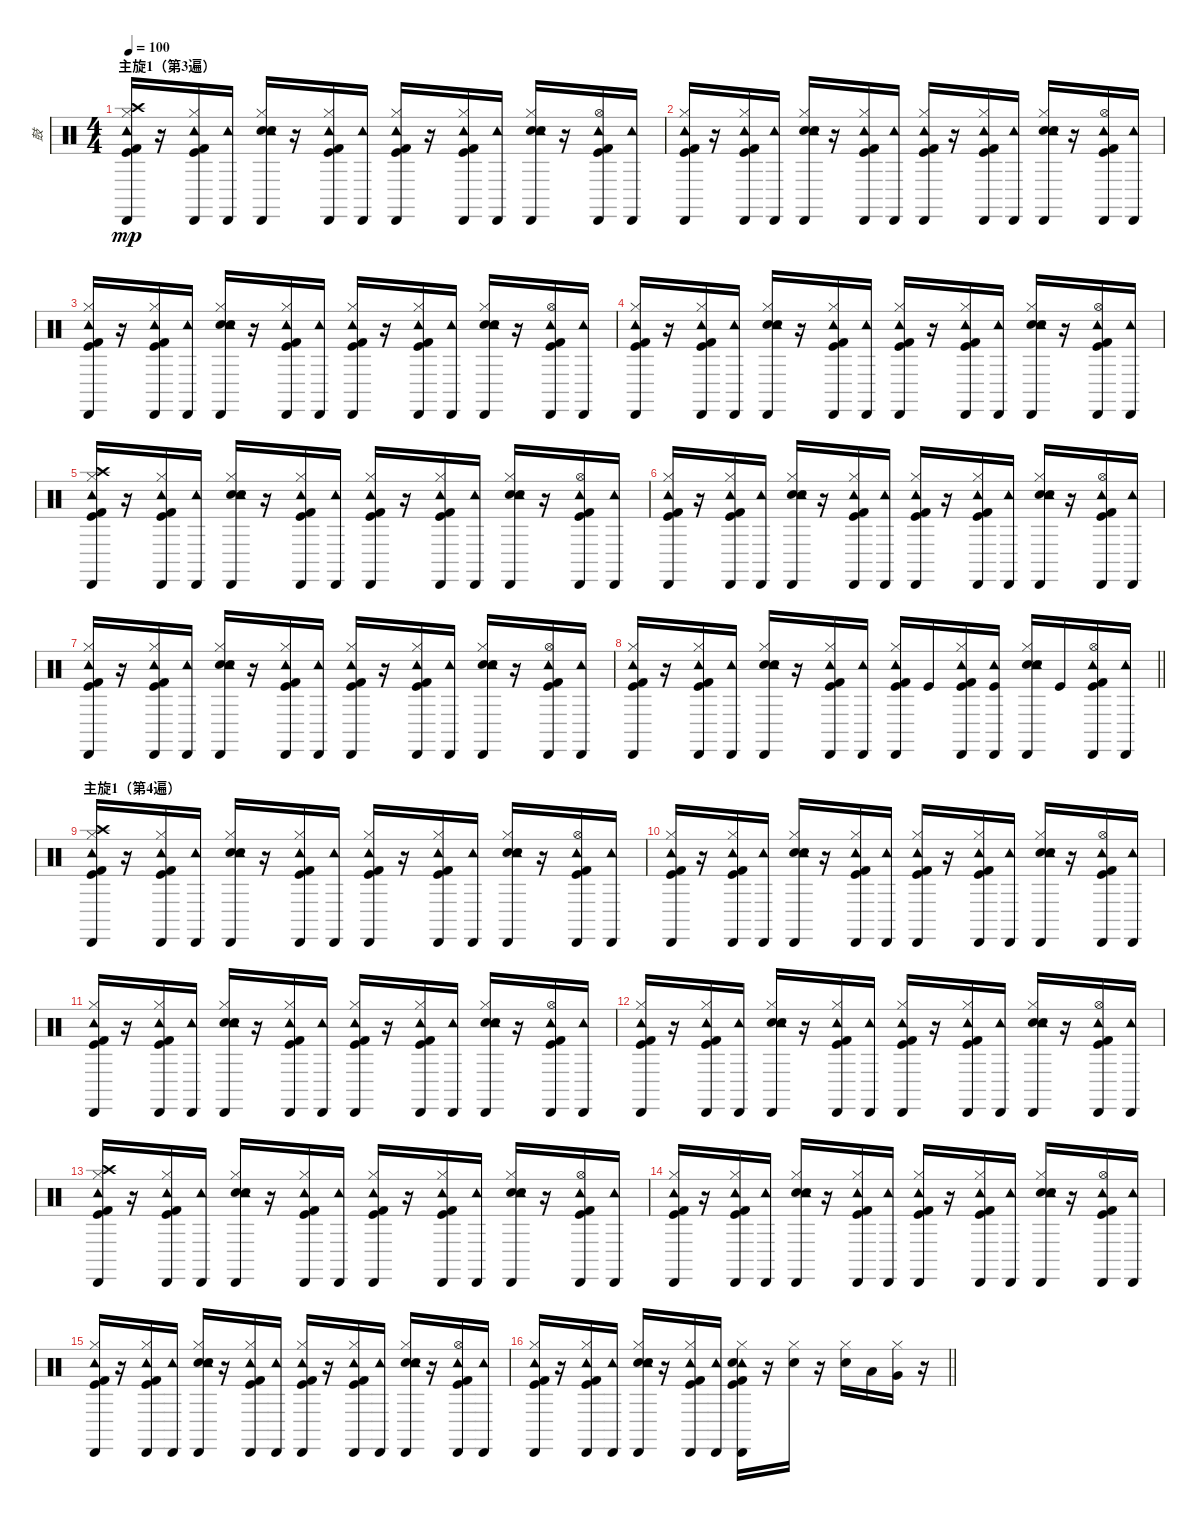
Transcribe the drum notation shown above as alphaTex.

\track ("鼓" "鼓") {instrument percussion}
\staff {score}
\articulation defaults
\ts (4 4)
\section ("" "主旋1（第3遍）")
\tempo 100
\clef neutral
\ks c
("Crash high (hit)" "Kick (hit)" "Kick (hit) 2" "Tambourine (hit)" "Cabasa (hit)" "Hi-Hat (closed)").16{dy mp} r.16 ("Kick (hit)" "Kick (hit) 2" "Tambourine (hit)" "Cabasa (hit)" "Hi-Hat (closed)").16 ("Tambourine (hit)" "Cabasa (hit)").16 ("Electric Snare (hit)" "Hand Clap (hit)" "Tambourine (hit)" "Cabasa (hit)" "Hi-Hat (closed)").16 r.16 ("Kick (hit)" "Kick (hit) 2" "Tambourine (hit)" "Cabasa (hit)" "Hi-Hat (closed)").16 ("Tambourine (hit)" "Cabasa (hit)").16 ("Kick (hit)" "Kick (hit) 2" "Tambourine (hit)" "Cabasa (hit)" "Hi-Hat (closed)").16 r.16 ("Kick (hit)" "Kick (hit) 2" "Tambourine (hit)" "Cabasa (hit)" "Hi-Hat (closed)").16 ("Tambourine (hit)" "Cabasa (hit)").16 ("Electric Snare (hit)" "Hand Clap (hit)" "Tambourine (hit)" "Cabasa (hit)" "Hi-Hat (closed)").16 r.16 ("Kick (hit)" "Kick (hit) 2" "Tambourine (hit)" "Cabasa (hit)" "Hi-Hat (open)").16 ("Tambourine (hit)" "Cabasa (hit)").16 |
("Kick (hit)" "Kick (hit) 2" "Tambourine (hit)" "Cabasa (hit)" "Hi-Hat (closed)").16 r.16 ("Kick (hit)" "Kick (hit) 2" "Tambourine (hit)" "Cabasa (hit)" "Hi-Hat (closed)").16 ("Tambourine (hit)" "Cabasa (hit)").16 ("Electric Snare (hit)" "Hand Clap (hit)" "Tambourine (hit)" "Cabasa (hit)" "Hi-Hat (closed)").16 r.16 ("Kick (hit)" "Kick (hit) 2" "Tambourine (hit)" "Cabasa (hit)" "Hi-Hat (closed)").16 ("Tambourine (hit)" "Cabasa (hit)").16 ("Kick (hit)" "Kick (hit) 2" "Tambourine (hit)" "Cabasa (hit)" "Hi-Hat (closed)").16 r.16 ("Kick (hit)" "Kick (hit) 2" "Tambourine (hit)" "Cabasa (hit)" "Hi-Hat (closed)").16 ("Tambourine (hit)" "Cabasa (hit)").16 ("Electric Snare (hit)" "Hand Clap (hit)" "Tambourine (hit)" "Cabasa (hit)" "Hi-Hat (closed)").16 r.16 ("Kick (hit)" "Kick (hit) 2" "Tambourine (hit)" "Cabasa (hit)" "Hi-Hat (open)").16 ("Tambourine (hit)" "Cabasa (hit)").16 |
("Kick (hit)" "Kick (hit) 2" "Tambourine (hit)" "Cabasa (hit)" "Hi-Hat (closed)").16 r.16 ("Kick (hit)" "Kick (hit) 2" "Tambourine (hit)" "Cabasa (hit)" "Hi-Hat (closed)").16 ("Tambourine (hit)" "Cabasa (hit)").16 ("Electric Snare (hit)" "Hand Clap (hit)" "Tambourine (hit)" "Cabasa (hit)" "Hi-Hat (closed)").16 r.16 ("Kick (hit)" "Kick (hit) 2" "Tambourine (hit)" "Cabasa (hit)" "Hi-Hat (closed)").16 ("Tambourine (hit)" "Cabasa (hit)").16 ("Kick (hit)" "Kick (hit) 2" "Tambourine (hit)" "Cabasa (hit)" "Hi-Hat (closed)").16 r.16 ("Kick (hit)" "Kick (hit) 2" "Tambourine (hit)" "Cabasa (hit)" "Hi-Hat (closed)").16 ("Tambourine (hit)" "Cabasa (hit)").16 ("Electric Snare (hit)" "Hand Clap (hit)" "Tambourine (hit)" "Cabasa (hit)" "Hi-Hat (closed)").16 r.16 ("Kick (hit)" "Kick (hit) 2" "Tambourine (hit)" "Cabasa (hit)" "Hi-Hat (open)").16 ("Tambourine (hit)" "Cabasa (hit)").16 |
("Kick (hit)" "Kick (hit) 2" "Tambourine (hit)" "Cabasa (hit)" "Hi-Hat (closed)").16 r.16 ("Kick (hit)" "Kick (hit) 2" "Tambourine (hit)" "Cabasa (hit)" "Hi-Hat (closed)").16 ("Tambourine (hit)" "Cabasa (hit)").16 ("Electric Snare (hit)" "Hand Clap (hit)" "Tambourine (hit)" "Cabasa (hit)" "Hi-Hat (closed)").16 r.16 ("Kick (hit)" "Kick (hit) 2" "Tambourine (hit)" "Cabasa (hit)" "Hi-Hat (closed)").16 ("Tambourine (hit)" "Cabasa (hit)").16 ("Kick (hit)" "Kick (hit) 2" "Tambourine (hit)" "Cabasa (hit)" "Hi-Hat (closed)").16 r.16 ("Kick (hit)" "Kick (hit) 2" "Tambourine (hit)" "Cabasa (hit)" "Hi-Hat (closed)").16 ("Tambourine (hit)" "Cabasa (hit)").16 ("Electric Snare (hit)" "Hand Clap (hit)" "Tambourine (hit)" "Cabasa (hit)" "Hi-Hat (closed)").16 r.16 ("Kick (hit)" "Kick (hit) 2" "Tambourine (hit)" "Cabasa (hit)" "Hi-Hat (open)").16 ("Tambourine (hit)" "Cabasa (hit)").16 |
("Crash high (hit)" "Kick (hit)" "Kick (hit) 2" "Tambourine (hit)" "Cabasa (hit)" "Hi-Hat (closed)").16 r.16 ("Kick (hit)" "Kick (hit) 2" "Tambourine (hit)" "Cabasa (hit)" "Hi-Hat (closed)").16 ("Tambourine (hit)" "Cabasa (hit)").16 ("Electric Snare (hit)" "Hand Clap (hit)" "Tambourine (hit)" "Cabasa (hit)" "Hi-Hat (closed)").16 r.16 ("Kick (hit)" "Kick (hit) 2" "Tambourine (hit)" "Cabasa (hit)" "Hi-Hat (closed)").16 ("Tambourine (hit)" "Cabasa (hit)").16 ("Kick (hit)" "Kick (hit) 2" "Tambourine (hit)" "Cabasa (hit)" "Hi-Hat (closed)").16 r.16 ("Kick (hit)" "Kick (hit) 2" "Tambourine (hit)" "Cabasa (hit)" "Hi-Hat (closed)").16 ("Tambourine (hit)" "Cabasa (hit)").16 ("Electric Snare (hit)" "Hand Clap (hit)" "Tambourine (hit)" "Cabasa (hit)" "Hi-Hat (closed)").16 r.16 ("Kick (hit)" "Kick (hit) 2" "Tambourine (hit)" "Cabasa (hit)" "Hi-Hat (open)").16 ("Tambourine (hit)" "Cabasa (hit)").16 |
("Kick (hit)" "Kick (hit) 2" "Tambourine (hit)" "Cabasa (hit)" "Hi-Hat (closed)").16 r.16 ("Kick (hit)" "Kick (hit) 2" "Tambourine (hit)" "Cabasa (hit)" "Hi-Hat (closed)").16 ("Tambourine (hit)" "Cabasa (hit)").16 ("Electric Snare (hit)" "Hand Clap (hit)" "Tambourine (hit)" "Cabasa (hit)" "Hi-Hat (closed)").16 r.16 ("Kick (hit)" "Kick (hit) 2" "Tambourine (hit)" "Cabasa (hit)" "Hi-Hat (closed)").16 ("Tambourine (hit)" "Cabasa (hit)").16 ("Kick (hit)" "Kick (hit) 2" "Tambourine (hit)" "Cabasa (hit)" "Hi-Hat (closed)").16 r.16 ("Kick (hit)" "Kick (hit) 2" "Tambourine (hit)" "Cabasa (hit)" "Hi-Hat (closed)").16 ("Tambourine (hit)" "Cabasa (hit)").16 ("Electric Snare (hit)" "Hand Clap (hit)" "Tambourine (hit)" "Cabasa (hit)" "Hi-Hat (closed)").16 r.16 ("Kick (hit)" "Kick (hit) 2" "Tambourine (hit)" "Cabasa (hit)" "Hi-Hat (open)").16 ("Tambourine (hit)" "Cabasa (hit)").16 |
("Kick (hit)" "Kick (hit) 2" "Tambourine (hit)" "Cabasa (hit)" "Hi-Hat (closed)").16 r.16 ("Kick (hit)" "Kick (hit) 2" "Tambourine (hit)" "Cabasa (hit)" "Hi-Hat (closed)").16 ("Tambourine (hit)" "Cabasa (hit)").16 ("Electric Snare (hit)" "Hand Clap (hit)" "Tambourine (hit)" "Cabasa (hit)" "Hi-Hat (closed)").16 r.16 ("Kick (hit)" "Kick (hit) 2" "Tambourine (hit)" "Cabasa (hit)" "Hi-Hat (closed)").16 ("Tambourine (hit)" "Cabasa (hit)").16 ("Kick (hit)" "Kick (hit) 2" "Tambourine (hit)" "Cabasa (hit)" "Hi-Hat (closed)").16 r.16 ("Kick (hit)" "Kick (hit) 2" "Tambourine (hit)" "Cabasa (hit)" "Hi-Hat (closed)").16 ("Tambourine (hit)" "Cabasa (hit)").16 ("Electric Snare (hit)" "Hand Clap (hit)" "Tambourine (hit)" "Cabasa (hit)" "Hi-Hat (closed)").16 r.16 ("Kick (hit)" "Kick (hit) 2" "Tambourine (hit)" "Cabasa (hit)" "Hi-Hat (open)").16 ("Tambourine (hit)" "Cabasa (hit)").16 |
\barLineRight lightlight
("Kick (hit)" "Kick (hit) 2" "Tambourine (hit)" "Cabasa (hit)" "Hi-Hat (closed)").16 r.16 ("Kick (hit)" "Kick (hit) 2" "Tambourine (hit)" "Cabasa (hit)" "Hi-Hat (closed)").16 ("Tambourine (hit)" "Cabasa (hit)").16 ("Electric Snare (hit)" "Hand Clap (hit)" "Tambourine (hit)" "Cabasa (hit)" "Hi-Hat (closed)").16 r.16 ("Kick (hit)" "Kick (hit) 2" "Tambourine (hit)" "Cabasa (hit)" "Hi-Hat (closed)").16 ("Tambourine (hit)" "Cabasa (hit)").16 ("Kick (hit)" "Kick (hit) 2" "Tambourine (hit)" "Cabasa (hit)" "Hi-Hat (closed)").16 "Kick (hit)".16 ("Kick (hit)" "Kick (hit) 2" "Tambourine (hit)" "Cabasa (hit)" "Hi-Hat (closed)").16 ("Tambourine (hit)" "Cabasa (hit)" "Kick (hit)").16 ("Electric Snare (hit)" "Hand Clap (hit)" "Tambourine (hit)" "Cabasa (hit)" "Hi-Hat (closed)" "Snare (side stick) 3").16 "Kick (hit)".16 ("Kick (hit)" "Kick (hit) 2" "Tambourine (hit)" "Cabasa (hit)" "Hi-Hat (open)").16 ("Tambourine (hit)" "Cabasa (hit)").16 |
\section ("" "主旋1（第4遍）")
("Crash high (hit)" "Kick (hit)" "Kick (hit) 2" "Tambourine (hit)" "Cabasa (hit)" "Hi-Hat (closed)").16 r.16 ("Kick (hit)" "Kick (hit) 2" "Tambourine (hit)" "Cabasa (hit)" "Hi-Hat (closed)").16 ("Tambourine (hit)" "Cabasa (hit)").16 ("Electric Snare (hit)" "Hand Clap (hit)" "Tambourine (hit)" "Cabasa (hit)" "Hi-Hat (closed)").16 r.16 ("Kick (hit)" "Kick (hit) 2" "Tambourine (hit)" "Cabasa (hit)" "Hi-Hat (closed)").16 ("Tambourine (hit)" "Cabasa (hit)").16 ("Kick (hit)" "Kick (hit) 2" "Tambourine (hit)" "Cabasa (hit)" "Hi-Hat (closed)").16 r.16 ("Kick (hit)" "Kick (hit) 2" "Tambourine (hit)" "Cabasa (hit)" "Hi-Hat (closed)").16 ("Tambourine (hit)" "Cabasa (hit)").16 ("Electric Snare (hit)" "Hand Clap (hit)" "Tambourine (hit)" "Cabasa (hit)" "Hi-Hat (closed)").16 r.16 ("Kick (hit)" "Kick (hit) 2" "Tambourine (hit)" "Cabasa (hit)" "Hi-Hat (open)").16 ("Tambourine (hit)" "Cabasa (hit)").16 |
("Kick (hit)" "Kick (hit) 2" "Tambourine (hit)" "Cabasa (hit)" "Hi-Hat (closed)").16 r.16 ("Kick (hit)" "Kick (hit) 2" "Tambourine (hit)" "Cabasa (hit)" "Hi-Hat (closed)").16 ("Tambourine (hit)" "Cabasa (hit)").16 ("Electric Snare (hit)" "Hand Clap (hit)" "Tambourine (hit)" "Cabasa (hit)" "Hi-Hat (closed)").16 r.16 ("Kick (hit)" "Kick (hit) 2" "Tambourine (hit)" "Cabasa (hit)" "Hi-Hat (closed)").16 ("Tambourine (hit)" "Cabasa (hit)").16 ("Kick (hit)" "Kick (hit) 2" "Tambourine (hit)" "Cabasa (hit)" "Hi-Hat (closed)").16 r.16 ("Kick (hit)" "Kick (hit) 2" "Tambourine (hit)" "Cabasa (hit)" "Hi-Hat (closed)").16 ("Tambourine (hit)" "Cabasa (hit)").16 ("Electric Snare (hit)" "Hand Clap (hit)" "Tambourine (hit)" "Cabasa (hit)" "Hi-Hat (closed)").16 r.16 ("Kick (hit)" "Kick (hit) 2" "Tambourine (hit)" "Cabasa (hit)" "Hi-Hat (open)").16 ("Tambourine (hit)" "Cabasa (hit)").16 |
("Kick (hit)" "Kick (hit) 2" "Tambourine (hit)" "Cabasa (hit)" "Hi-Hat (closed)").16 r.16 ("Kick (hit)" "Kick (hit) 2" "Tambourine (hit)" "Cabasa (hit)" "Hi-Hat (closed)").16 ("Tambourine (hit)" "Cabasa (hit)").16 ("Electric Snare (hit)" "Hand Clap (hit)" "Tambourine (hit)" "Cabasa (hit)" "Hi-Hat (closed)").16 r.16 ("Kick (hit)" "Kick (hit) 2" "Tambourine (hit)" "Cabasa (hit)" "Hi-Hat (closed)").16 ("Tambourine (hit)" "Cabasa (hit)").16 ("Kick (hit)" "Kick (hit) 2" "Tambourine (hit)" "Cabasa (hit)" "Hi-Hat (closed)").16 r.16 ("Kick (hit)" "Kick (hit) 2" "Tambourine (hit)" "Cabasa (hit)" "Hi-Hat (closed)").16 ("Tambourine (hit)" "Cabasa (hit)").16 ("Electric Snare (hit)" "Hand Clap (hit)" "Tambourine (hit)" "Cabasa (hit)" "Hi-Hat (closed)").16 r.16 ("Kick (hit)" "Kick (hit) 2" "Tambourine (hit)" "Cabasa (hit)" "Hi-Hat (open)").16 ("Tambourine (hit)" "Cabasa (hit)").16 |
("Kick (hit)" "Kick (hit) 2" "Tambourine (hit)" "Cabasa (hit)" "Hi-Hat (closed)").16 r.16 ("Kick (hit)" "Kick (hit) 2" "Tambourine (hit)" "Cabasa (hit)" "Hi-Hat (closed)").16 ("Tambourine (hit)" "Cabasa (hit)").16 ("Electric Snare (hit)" "Hand Clap (hit)" "Tambourine (hit)" "Cabasa (hit)" "Hi-Hat (closed)").16 r.16 ("Kick (hit)" "Kick (hit) 2" "Tambourine (hit)" "Cabasa (hit)" "Hi-Hat (closed)").16 ("Tambourine (hit)" "Cabasa (hit)").16 ("Kick (hit)" "Kick (hit) 2" "Tambourine (hit)" "Cabasa (hit)" "Hi-Hat (closed)").16 r.16 ("Kick (hit)" "Kick (hit) 2" "Tambourine (hit)" "Cabasa (hit)" "Hi-Hat (closed)").16 ("Tambourine (hit)" "Cabasa (hit)").16 ("Electric Snare (hit)" "Hand Clap (hit)" "Tambourine (hit)" "Cabasa (hit)" "Hi-Hat (closed)").16 r.16 ("Kick (hit)" "Kick (hit) 2" "Tambourine (hit)" "Cabasa (hit)" "Hi-Hat (open)").16 ("Tambourine (hit)" "Cabasa (hit)").16 |
("Crash high (hit)" "Kick (hit)" "Kick (hit) 2" "Tambourine (hit)" "Cabasa (hit)" "Hi-Hat (closed)").16 r.16 ("Kick (hit)" "Kick (hit) 2" "Tambourine (hit)" "Cabasa (hit)" "Hi-Hat (closed)").16 ("Tambourine (hit)" "Cabasa (hit)").16 ("Electric Snare (hit)" "Hand Clap (hit)" "Tambourine (hit)" "Cabasa (hit)" "Hi-Hat (closed)").16 r.16 ("Kick (hit)" "Kick (hit) 2" "Tambourine (hit)" "Cabasa (hit)" "Hi-Hat (closed)").16 ("Tambourine (hit)" "Cabasa (hit)").16 ("Kick (hit)" "Kick (hit) 2" "Tambourine (hit)" "Cabasa (hit)" "Hi-Hat (closed)").16 r.16 ("Kick (hit)" "Kick (hit) 2" "Tambourine (hit)" "Cabasa (hit)" "Hi-Hat (closed)").16 ("Tambourine (hit)" "Cabasa (hit)").16 ("Electric Snare (hit)" "Hand Clap (hit)" "Tambourine (hit)" "Cabasa (hit)" "Hi-Hat (closed)").16 r.16 ("Kick (hit)" "Kick (hit) 2" "Tambourine (hit)" "Cabasa (hit)" "Hi-Hat (open)").16 ("Tambourine (hit)" "Cabasa (hit)").16 |
("Kick (hit)" "Kick (hit) 2" "Tambourine (hit)" "Cabasa (hit)" "Hi-Hat (closed)").16 r.16 ("Kick (hit)" "Kick (hit) 2" "Tambourine (hit)" "Cabasa (hit)" "Hi-Hat (closed)").16 ("Tambourine (hit)" "Cabasa (hit)").16 ("Electric Snare (hit)" "Hand Clap (hit)" "Tambourine (hit)" "Cabasa (hit)" "Hi-Hat (closed)").16 r.16 ("Kick (hit)" "Kick (hit) 2" "Tambourine (hit)" "Cabasa (hit)" "Hi-Hat (closed)").16 ("Tambourine (hit)" "Cabasa (hit)").16 ("Kick (hit)" "Kick (hit) 2" "Tambourine (hit)" "Cabasa (hit)" "Hi-Hat (closed)").16 r.16 ("Kick (hit)" "Kick (hit) 2" "Tambourine (hit)" "Cabasa (hit)" "Hi-Hat (closed)").16 ("Tambourine (hit)" "Cabasa (hit)").16 ("Electric Snare (hit)" "Hand Clap (hit)" "Tambourine (hit)" "Cabasa (hit)" "Hi-Hat (closed)").16 r.16 ("Kick (hit)" "Kick (hit) 2" "Tambourine (hit)" "Cabasa (hit)" "Hi-Hat (open)").16 ("Tambourine (hit)" "Cabasa (hit)").16 |
("Kick (hit)" "Kick (hit) 2" "Tambourine (hit)" "Cabasa (hit)" "Hi-Hat (closed)").16 r.16 ("Kick (hit)" "Kick (hit) 2" "Tambourine (hit)" "Cabasa (hit)" "Hi-Hat (closed)").16 ("Tambourine (hit)" "Cabasa (hit)").16 ("Electric Snare (hit)" "Hand Clap (hit)" "Tambourine (hit)" "Cabasa (hit)" "Hi-Hat (closed)").16 r.16 ("Kick (hit)" "Kick (hit) 2" "Tambourine (hit)" "Cabasa (hit)" "Hi-Hat (closed)").16 ("Tambourine (hit)" "Cabasa (hit)").16 ("Kick (hit)" "Kick (hit) 2" "Tambourine (hit)" "Cabasa (hit)" "Hi-Hat (closed)").16 r.16 ("Kick (hit)" "Kick (hit) 2" "Tambourine (hit)" "Cabasa (hit)" "Hi-Hat (closed)").16 ("Tambourine (hit)" "Cabasa (hit)").16 ("Electric Snare (hit)" "Hand Clap (hit)" "Tambourine (hit)" "Cabasa (hit)" "Hi-Hat (closed)").16 r.16 ("Kick (hit)" "Kick (hit) 2" "Tambourine (hit)" "Cabasa (hit)" "Hi-Hat (open)").16 ("Tambourine (hit)" "Cabasa (hit)").16 |
\barLineRight lightlight
("Kick (hit)" "Kick (hit) 2" "Tambourine (hit)" "Cabasa (hit)" "Hi-Hat (closed)").16 r.16 ("Kick (hit)" "Kick (hit) 2" "Tambourine (hit)" "Cabasa (hit)" "Hi-Hat (closed)").16 ("Tambourine (hit)" "Cabasa (hit)").16 ("Electric Snare (hit)" "Hand Clap (hit)" "Tambourine (hit)" "Cabasa (hit)" "Hi-Hat (closed)").16 r.16 ("Kick (hit)" "Kick (hit) 2" "Tambourine (hit)" "Cabasa (hit)" "Hi-Hat (closed)").16 ("Tambourine (hit)" "Cabasa (hit)").16 ("Kick (hit)" "Kick (hit) 2" "Tambourine (hit)" "Cabasa (hit)" "Hi-Hat (closed)" "Electric Snare (hit)").16 r.16 ("Hi-Hat (closed)" "Electric Snare (hit)").16 r.16 ("Hi-Hat (closed)" "Electric Snare (hit)").16 "Low Tom (hit)".16 ("Hi-Hat (closed)" "Very Low Tom (hit)").16 r.16
